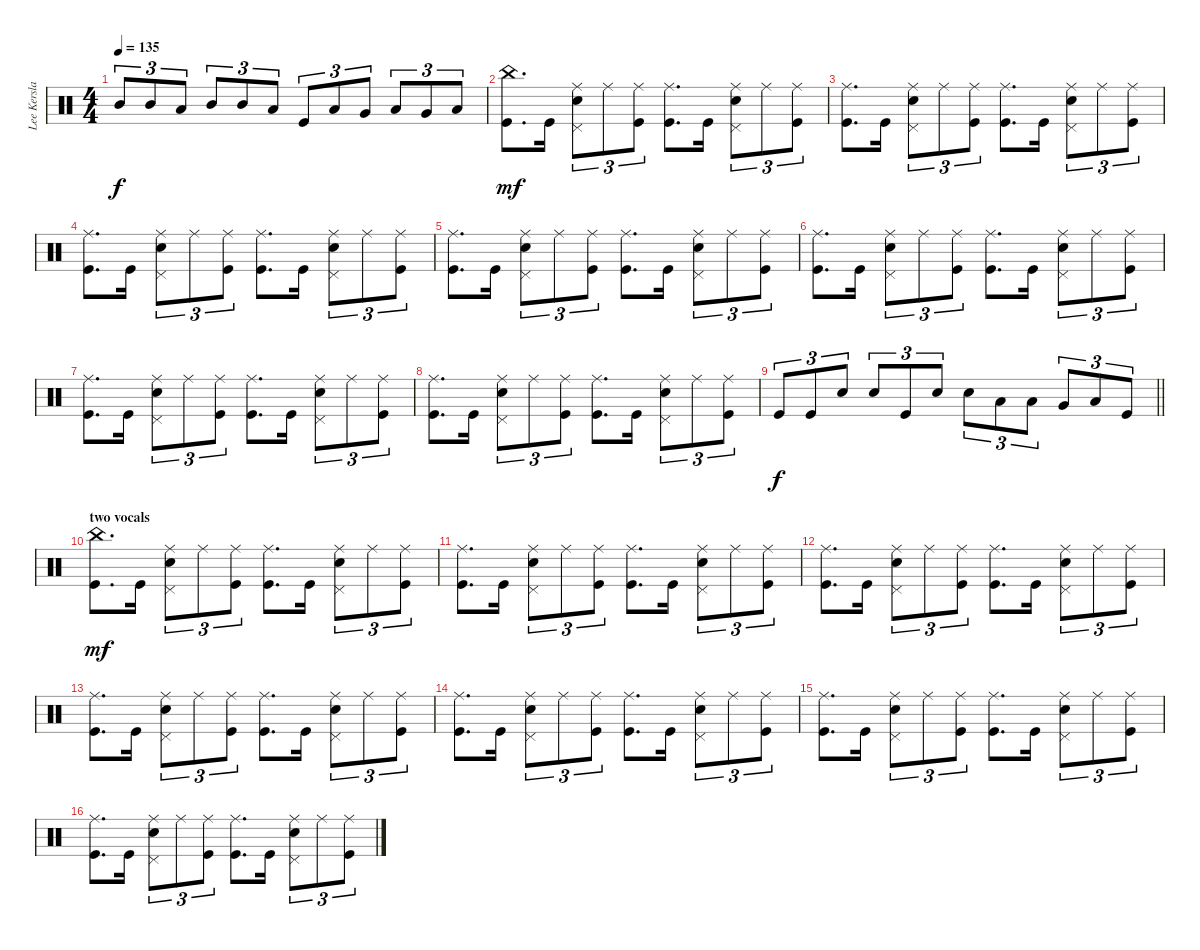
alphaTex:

\track ("Lee Kerslake (drums)" "Lee Kersla") {instrument percussion}
\staff {score}
\articulation defaults
\ts (4 4)
\tempo 135
\clef neutral
\ks c "Mid Tom (hit)".8{tu (3 2) dy f} "Mid Tom (hit)".8{tu (3 2)} "Low Tom (hit)".8{tu (3 2)} "Mid Tom (hit)".8{tu (3 2)} "Mid Tom (hit)".8{tu (3 2)} "Low Tom (hit)".8{tu (3 2)} "Kick (hit)".8{tu (3 2)} "Low Tom (hit)".8{tu (3 2)} "Very Low Tom (hit)".8{tu (3 2)} "Low Tom (hit)".8{tu (3 2)} "Very Low Tom (hit)".8{tu (3 2)} "Low Floor Tom (hit)".8{tu (3 2)}
|
("China (hit)" "Kick (hit)").8{d dy mf} "Kick (hit)".16 ("Ride (middle)" "Pedal Hi-Hat (hit)" "Snare (hit) 2").8{tu (3 2)} "Ride (middle)".8{tu (3 2)} ("Ride (middle)" "Kick (hit)").8{tu (3 2)} ("Ride (middle)" "Kick (hit)").8{d} "Kick (hit)".16 ("Ride (middle)" "Pedal Hi-Hat (hit)" "Snare (hit) 2").8{tu (3 2)} "Ride (middle)".8{tu (3 2)} ("Ride (middle)" "Kick (hit)").8{tu (3 2)} |
("Ride (middle)" "Kick (hit)").8{d} "Kick (hit)".16 ("Ride (middle)" "Pedal Hi-Hat (hit)" "Snare (hit) 2").8{tu (3 2)} "Ride (middle)".8{tu (3 2)} ("Ride (middle)" "Kick (hit)").8{tu (3 2)} ("Ride (middle)" "Kick (hit)").8{d} "Kick (hit)".16 ("Ride (middle)" "Pedal Hi-Hat (hit)" "Snare (hit) 2").8{tu (3 2)} "Ride (middle)".8{tu (3 2)} ("Ride (middle)" "Kick (hit)").8{tu (3 2)} |
("Ride (middle)" "Kick (hit)").8{d} "Kick (hit)".16 ("Ride (middle)" "Pedal Hi-Hat (hit)" "Snare (hit) 2").8{tu (3 2)} "Ride (middle)".8{tu (3 2)} ("Ride (middle)" "Kick (hit)").8{tu (3 2)} ("Ride (middle)" "Kick (hit)").8{d} "Kick (hit)".16 ("Ride (middle)" "Pedal Hi-Hat (hit)" "Snare (hit) 2").8{tu (3 2)} "Ride (middle)".8{tu (3 2)} ("Ride (middle)" "Kick (hit)").8{tu (3 2)} |
("Ride (middle)" "Kick (hit)").8{d} "Kick (hit)".16 ("Ride (middle)" "Pedal Hi-Hat (hit)" "Snare (hit) 2").8{tu (3 2)} "Ride (middle)".8{tu (3 2)} ("Ride (middle)" "Kick (hit)").8{tu (3 2)} ("Ride (middle)" "Kick (hit)").8{d} "Kick (hit)".16 ("Ride (middle)" "Pedal Hi-Hat (hit)" "Snare (hit) 2").8{tu (3 2)} "Ride (middle)".8{tu (3 2)} ("Ride (middle)" "Kick (hit)").8{tu (3 2)} |
("Ride (middle)" "Kick (hit)").8{d} "Kick (hit)".16 ("Ride (middle)" "Pedal Hi-Hat (hit)" "Snare (hit) 2").8{tu (3 2)} "Ride (middle)".8{tu (3 2)} ("Ride (middle)" "Kick (hit)").8{tu (3 2)} ("Ride (middle)" "Kick (hit)").8{d} "Kick (hit)".16 ("Ride (middle)" "Pedal Hi-Hat (hit)" "Snare (hit) 2").8{tu (3 2)} "Ride (middle)".8{tu (3 2)} ("Ride (middle)" "Kick (hit)").8{tu (3 2)} |
("Ride (middle)" "Kick (hit)").8{d} "Kick (hit)".16 ("Ride (middle)" "Pedal Hi-Hat (hit)" "Snare (hit) 2").8{tu (3 2)} "Ride (middle)".8{tu (3 2)} ("Ride (middle)" "Kick (hit)").8{tu (3 2)} ("Ride (middle)" "Kick (hit)").8{d} "Kick (hit)".16 ("Ride (middle)" "Pedal Hi-Hat (hit)" "Snare (hit) 2").8{tu (3 2)} "Ride (middle)".8{tu (3 2)} ("Ride (middle)" "Kick (hit)").8{tu (3 2)} |
("Ride (middle)" "Kick (hit)").8{d} "Kick (hit)".16 ("Ride (middle)" "Pedal Hi-Hat (hit)" "Snare (hit) 2").8{tu (3 2)} "Ride (middle)".8{tu (3 2)} ("Ride (middle)" "Kick (hit)").8{tu (3 2)} ("Ride (middle)" "Kick (hit)").8{d} "Kick (hit)".16 ("Ride (middle)" "Pedal Hi-Hat (hit)" "Snare (hit) 2").8{tu (3 2)} "Ride (middle)".8{tu (3 2)} ("Ride (middle)" "Kick (hit)").8{tu (3 2)} |
\barLineRight lightlight "Kick (hit)".8{tu (3 2) dy f} "Kick (hit)".8{tu (3 2)} "Snare (hit) 2".8{tu (3 2)} "Snare (hit) 2".8{tu (3 2)} "Kick (hit)".8{tu (3 2)} "Snare (hit) 2".8{tu (3 2)} "Snare (hit) 2".8{tu (3 2)} "Low Tom (hit)".8{tu (3 2)} "Low Tom (hit)".8{tu (3 2)} "Very Low Tom (hit)".8{tu (3 2)} "Low Floor Tom (hit)".8{tu (3 2)} "Kick (hit)".8{tu (3 2)}
|
\section ("" "two vocals")
("China (hit)" "Kick (hit)").8{d dy mf} "Kick (hit)".16 ("Ride (middle)" "Pedal Hi-Hat (hit)" "Snare (hit) 2").8{tu (3 2)} "Ride (middle)".8{tu (3 2)} ("Ride (middle)" "Kick (hit)").8{tu (3 2)} ("Ride (middle)" "Kick (hit)").8{d} "Kick (hit)".16 ("Ride (middle)" "Pedal Hi-Hat (hit)" "Snare (hit) 2").8{tu (3 2)} "Ride (middle)".8{tu (3 2)} ("Ride (middle)" "Kick (hit)").8{tu (3 2)} |
("Ride (middle)" "Kick (hit)").8{d} "Kick (hit)".16 ("Ride (middle)" "Pedal Hi-Hat (hit)" "Snare (hit) 2").8{tu (3 2)} "Ride (middle)".8{tu (3 2)} ("Ride (middle)" "Kick (hit)").8{tu (3 2)} ("Ride (middle)" "Kick (hit)").8{d} "Kick (hit)".16 ("Ride (middle)" "Pedal Hi-Hat (hit)" "Snare (hit) 2").8{tu (3 2)} "Ride (middle)".8{tu (3 2)} ("Ride (middle)" "Kick (hit)").8{tu (3 2)} |
("Ride (middle)" "Kick (hit)").8{d} "Kick (hit)".16 ("Ride (middle)" "Pedal Hi-Hat (hit)" "Snare (hit) 2").8{tu (3 2)} "Ride (middle)".8{tu (3 2)} ("Ride (middle)" "Kick (hit)").8{tu (3 2)} ("Ride (middle)" "Kick (hit)").8{d} "Kick (hit)".16 ("Ride (middle)" "Pedal Hi-Hat (hit)" "Snare (hit) 2").8{tu (3 2)} "Ride (middle)".8{tu (3 2)} ("Ride (middle)" "Kick (hit)").8{tu (3 2)} |
("Ride (middle)" "Kick (hit)").8{d} "Kick (hit)".16 ("Ride (middle)" "Pedal Hi-Hat (hit)" "Snare (hit) 2").8{tu (3 2)} "Ride (middle)".8{tu (3 2)} ("Ride (middle)" "Kick (hit)").8{tu (3 2)} ("Ride (middle)" "Kick (hit)").8{d} "Kick (hit)".16 ("Ride (middle)" "Pedal Hi-Hat (hit)" "Snare (hit) 2").8{tu (3 2)} "Ride (middle)".8{tu (3 2)} ("Ride (middle)" "Kick (hit)").8{tu (3 2)} |
("Ride (middle)" "Kick (hit)").8{d} "Kick (hit)".16 ("Ride (middle)" "Pedal Hi-Hat (hit)" "Snare (hit) 2").8{tu (3 2)} "Ride (middle)".8{tu (3 2)} ("Ride (middle)" "Kick (hit)").8{tu (3 2)} ("Ride (middle)" "Kick (hit)").8{d} "Kick (hit)".16 ("Ride (middle)" "Pedal Hi-Hat (hit)" "Snare (hit) 2").8{tu (3 2)} "Ride (middle)".8{tu (3 2)} ("Ride (middle)" "Kick (hit)").8{tu (3 2)} |
("Ride (middle)" "Kick (hit)").8{d} "Kick (hit)".16 ("Ride (middle)" "Pedal Hi-Hat (hit)" "Snare (hit) 2").8{tu (3 2)} "Ride (middle)".8{tu (3 2)} ("Ride (middle)" "Kick (hit)").8{tu (3 2)} ("Ride (middle)" "Kick (hit)").8{d} "Kick (hit)".16 ("Ride (middle)" "Pedal Hi-Hat (hit)" "Snare (hit) 2").8{tu (3 2)} "Ride (middle)".8{tu (3 2)} ("Ride (middle)" "Kick (hit)").8{tu (3 2)} |
("Ride (middle)" "Kick (hit)").8{d} "Kick (hit)".16 ("Ride (middle)" "Pedal Hi-Hat (hit)" "Snare (hit) 2").8{tu (3 2)} "Ride (middle)".8{tu (3 2)} ("Ride (middle)" "Kick (hit)").8{tu (3 2)} ("Ride (middle)" "Kick (hit)").8{d} "Kick (hit)".16 ("Ride (middle)" "Pedal Hi-Hat (hit)" "Snare (hit) 2").8{tu (3 2)} "Ride (middle)".8{tu (3 2)} ("Ride (middle)" "Kick (hit)").8{tu (3 2)}
